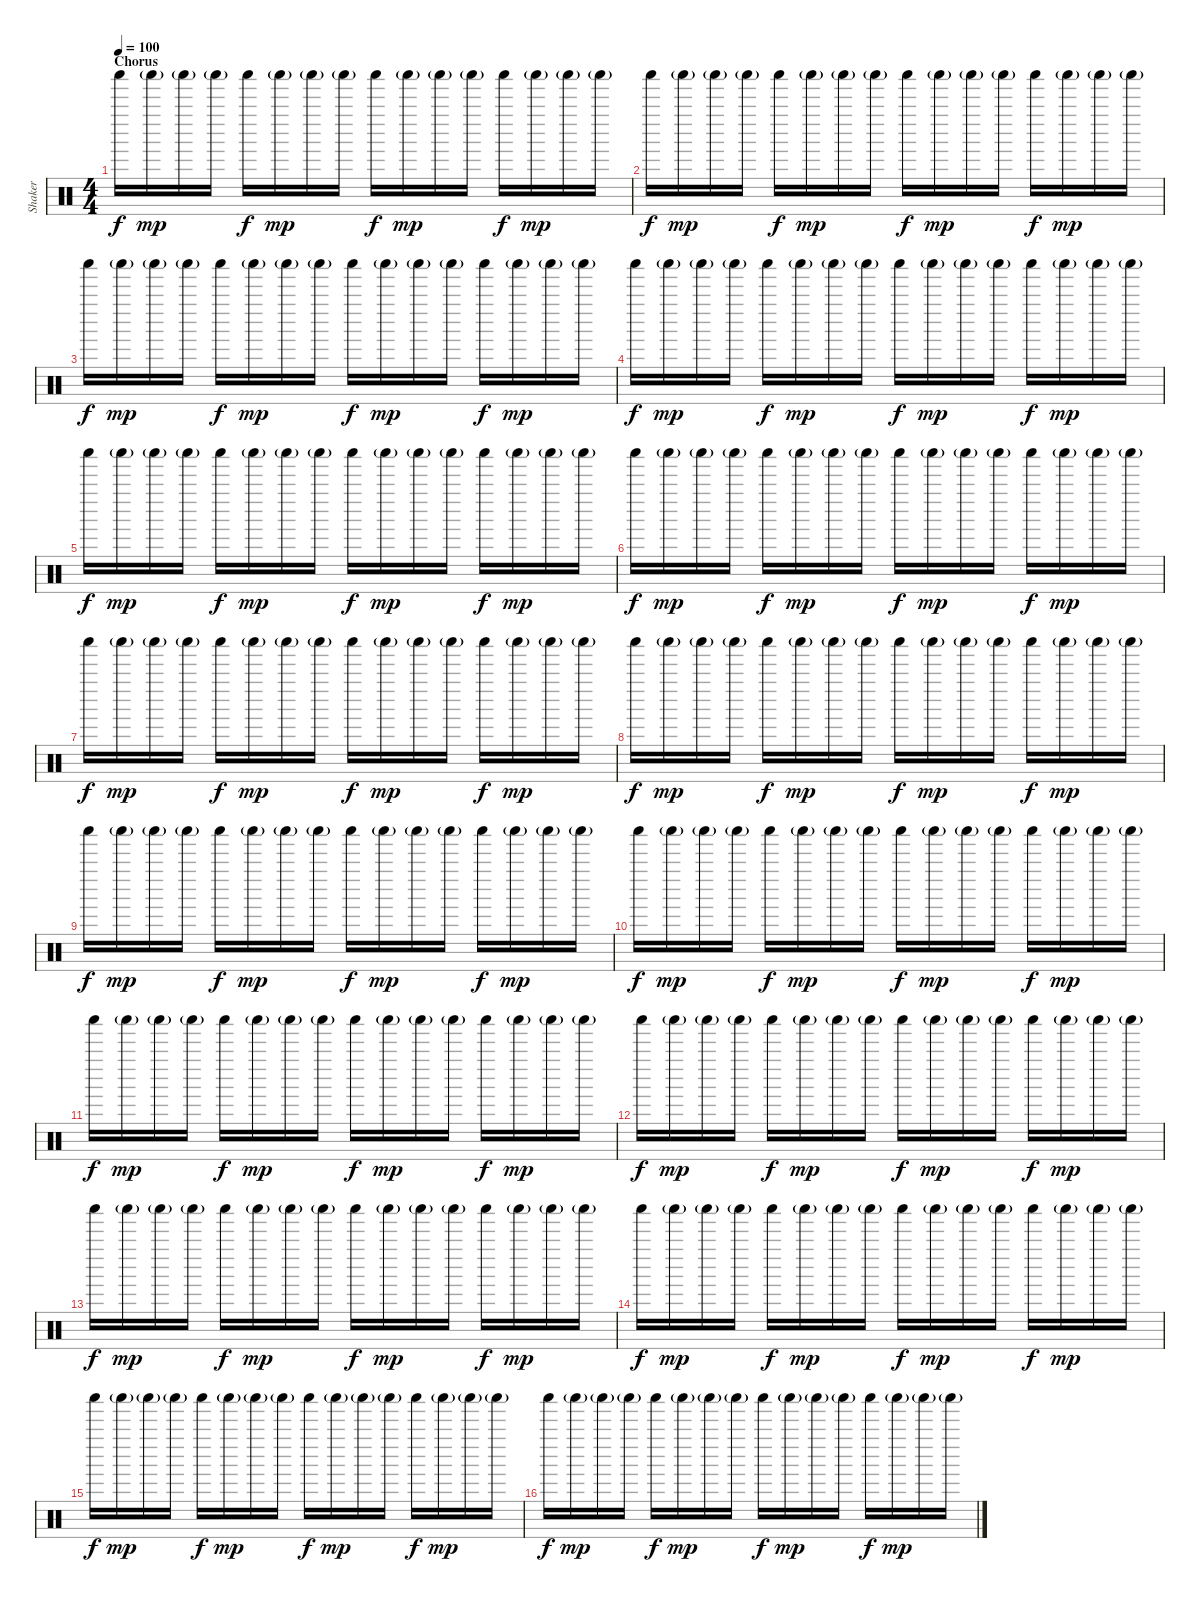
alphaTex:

\track ("Shaker" "Shaker") {instrument percussion}
\staff {score}
\articulation defaults
\ts (4 4)
\section ("" "Chorus")
\tempo 100
\clef neutral
\ks c "Shaker (hit)".16{dy f} "Shaker (hit)"{g}.16{dy mp} "Shaker (hit)"{g}.16 "Shaker (hit)"{g}.16 "Shaker (hit)".16{dy f} "Shaker (hit)"{g}.16{dy mp} "Shaker (hit)"{g}.16 "Shaker (hit)"{g}.16 "Shaker (hit)".16{dy f} "Shaker (hit)"{g}.16{dy mp} "Shaker (hit)"{g}.16 "Shaker (hit)"{g}.16 "Shaker (hit)".16{dy f} "Shaker (hit)"{g}.16{dy mp} "Shaker (hit)"{g}.16 "Shaker (hit)"{g}.16
|
"Shaker (hit)".16{dy f} "Shaker (hit)"{g}.16{dy mp} "Shaker (hit)"{g}.16 "Shaker (hit)"{g}.16 "Shaker (hit)".16{dy f} "Shaker (hit)"{g}.16{dy mp} "Shaker (hit)"{g}.16 "Shaker (hit)"{g}.16 "Shaker (hit)".16{dy f} "Shaker (hit)"{g}.16{dy mp} "Shaker (hit)"{g}.16 "Shaker (hit)"{g}.16 "Shaker (hit)".16{dy f} "Shaker (hit)"{g}.16{dy mp} "Shaker (hit)"{g}.16 "Shaker (hit)"{g}.16 |
"Shaker (hit)".16{dy f} "Shaker (hit)"{g}.16{dy mp} "Shaker (hit)"{g}.16 "Shaker (hit)"{g}.16 "Shaker (hit)".16{dy f} "Shaker (hit)"{g}.16{dy mp} "Shaker (hit)"{g}.16 "Shaker (hit)"{g}.16 "Shaker (hit)".16{dy f} "Shaker (hit)"{g}.16{dy mp} "Shaker (hit)"{g}.16 "Shaker (hit)"{g}.16 "Shaker (hit)".16{dy f} "Shaker (hit)"{g}.16{dy mp} "Shaker (hit)"{g}.16 "Shaker (hit)"{g}.16 |
"Shaker (hit)".16{dy f} "Shaker (hit)"{g}.16{dy mp} "Shaker (hit)"{g}.16 "Shaker (hit)"{g}.16 "Shaker (hit)".16{dy f} "Shaker (hit)"{g}.16{dy mp} "Shaker (hit)"{g}.16 "Shaker (hit)"{g}.16 "Shaker (hit)".16{dy f} "Shaker (hit)"{g}.16{dy mp} "Shaker (hit)"{g}.16 "Shaker (hit)"{g}.16 "Shaker (hit)".16{dy f} "Shaker (hit)"{g}.16{dy mp} "Shaker (hit)"{g}.16 "Shaker (hit)"{g}.16 |
"Shaker (hit)".16{dy f} "Shaker (hit)"{g}.16{dy mp} "Shaker (hit)"{g}.16 "Shaker (hit)"{g}.16 "Shaker (hit)".16{dy f} "Shaker (hit)"{g}.16{dy mp} "Shaker (hit)"{g}.16 "Shaker (hit)"{g}.16 "Shaker (hit)".16{dy f} "Shaker (hit)"{g}.16{dy mp} "Shaker (hit)"{g}.16 "Shaker (hit)"{g}.16 "Shaker (hit)".16{dy f} "Shaker (hit)"{g}.16{dy mp} "Shaker (hit)"{g}.16 "Shaker (hit)"{g}.16 |
"Shaker (hit)".16{dy f} "Shaker (hit)"{g}.16{dy mp} "Shaker (hit)"{g}.16 "Shaker (hit)"{g}.16 "Shaker (hit)".16{dy f} "Shaker (hit)"{g}.16{dy mp} "Shaker (hit)"{g}.16 "Shaker (hit)"{g}.16 "Shaker (hit)".16{dy f} "Shaker (hit)"{g}.16{dy mp} "Shaker (hit)"{g}.16 "Shaker (hit)"{g}.16 "Shaker (hit)".16{dy f} "Shaker (hit)"{g}.16{dy mp} "Shaker (hit)"{g}.16 "Shaker (hit)"{g}.16 |
"Shaker (hit)".16{dy f} "Shaker (hit)"{g}.16{dy mp} "Shaker (hit)"{g}.16 "Shaker (hit)"{g}.16 "Shaker (hit)".16{dy f} "Shaker (hit)"{g}.16{dy mp} "Shaker (hit)"{g}.16 "Shaker (hit)"{g}.16 "Shaker (hit)".16{dy f} "Shaker (hit)"{g}.16{dy mp} "Shaker (hit)"{g}.16 "Shaker (hit)"{g}.16 "Shaker (hit)".16{dy f} "Shaker (hit)"{g}.16{dy mp} "Shaker (hit)"{g}.16 "Shaker (hit)"{g}.16 |
"Shaker (hit)".16{dy f} "Shaker (hit)"{g}.16{dy mp} "Shaker (hit)"{g}.16 "Shaker (hit)"{g}.16 "Shaker (hit)".16{dy f} "Shaker (hit)"{g}.16{dy mp} "Shaker (hit)"{g}.16 "Shaker (hit)"{g}.16 "Shaker (hit)".16{dy f} "Shaker (hit)"{g}.16{dy mp} "Shaker (hit)"{g}.16 "Shaker (hit)"{g}.16 "Shaker (hit)".16{dy f} "Shaker (hit)"{g}.16{dy mp} "Shaker (hit)"{g}.16 "Shaker (hit)"{g}.16 |
"Shaker (hit)".16{dy f} "Shaker (hit)"{g}.16{dy mp} "Shaker (hit)"{g}.16 "Shaker (hit)"{g}.16 "Shaker (hit)".16{dy f} "Shaker (hit)"{g}.16{dy mp} "Shaker (hit)"{g}.16 "Shaker (hit)"{g}.16 "Shaker (hit)".16{dy f} "Shaker (hit)"{g}.16{dy mp} "Shaker (hit)"{g}.16 "Shaker (hit)"{g}.16 "Shaker (hit)".16{dy f} "Shaker (hit)"{g}.16{dy mp} "Shaker (hit)"{g}.16 "Shaker (hit)"{g}.16 |
"Shaker (hit)".16{dy f} "Shaker (hit)"{g}.16{dy mp} "Shaker (hit)"{g}.16 "Shaker (hit)"{g}.16 "Shaker (hit)".16{dy f} "Shaker (hit)"{g}.16{dy mp} "Shaker (hit)"{g}.16 "Shaker (hit)"{g}.16 "Shaker (hit)".16{dy f} "Shaker (hit)"{g}.16{dy mp} "Shaker (hit)"{g}.16 "Shaker (hit)"{g}.16 "Shaker (hit)".16{dy f} "Shaker (hit)"{g}.16{dy mp} "Shaker (hit)"{g}.16 "Shaker (hit)"{g}.16 |
"Shaker (hit)".16{dy f} "Shaker (hit)"{g}.16{dy mp} "Shaker (hit)"{g}.16 "Shaker (hit)"{g}.16 "Shaker (hit)".16{dy f} "Shaker (hit)"{g}.16{dy mp} "Shaker (hit)"{g}.16 "Shaker (hit)"{g}.16 "Shaker (hit)".16{dy f} "Shaker (hit)"{g}.16{dy mp} "Shaker (hit)"{g}.16 "Shaker (hit)"{g}.16 "Shaker (hit)".16{dy f} "Shaker (hit)"{g}.16{dy mp} "Shaker (hit)"{g}.16 "Shaker (hit)"{g}.16 |
"Shaker (hit)".16{dy f} "Shaker (hit)"{g}.16{dy mp} "Shaker (hit)"{g}.16 "Shaker (hit)"{g}.16 "Shaker (hit)".16{dy f} "Shaker (hit)"{g}.16{dy mp} "Shaker (hit)"{g}.16 "Shaker (hit)"{g}.16 "Shaker (hit)".16{dy f} "Shaker (hit)"{g}.16{dy mp} "Shaker (hit)"{g}.16 "Shaker (hit)"{g}.16 "Shaker (hit)".16{dy f} "Shaker (hit)"{g}.16{dy mp} "Shaker (hit)"{g}.16 "Shaker (hit)"{g}.16 |
"Shaker (hit)".16{dy f} "Shaker (hit)"{g}.16{dy mp} "Shaker (hit)"{g}.16 "Shaker (hit)"{g}.16 "Shaker (hit)".16{dy f} "Shaker (hit)"{g}.16{dy mp} "Shaker (hit)"{g}.16 "Shaker (hit)"{g}.16 "Shaker (hit)".16{dy f} "Shaker (hit)"{g}.16{dy mp} "Shaker (hit)"{g}.16 "Shaker (hit)"{g}.16 "Shaker (hit)".16{dy f} "Shaker (hit)"{g}.16{dy mp} "Shaker (hit)"{g}.16 "Shaker (hit)"{g}.16 |
"Shaker (hit)".16{dy f} "Shaker (hit)"{g}.16{dy mp} "Shaker (hit)"{g}.16 "Shaker (hit)"{g}.16 "Shaker (hit)".16{dy f} "Shaker (hit)"{g}.16{dy mp} "Shaker (hit)"{g}.16 "Shaker (hit)"{g}.16 "Shaker (hit)".16{dy f} "Shaker (hit)"{g}.16{dy mp} "Shaker (hit)"{g}.16 "Shaker (hit)"{g}.16 "Shaker (hit)".16{dy f} "Shaker (hit)"{g}.16{dy mp} "Shaker (hit)"{g}.16 "Shaker (hit)"{g}.16 |
"Shaker (hit)".16{dy f} "Shaker (hit)"{g}.16{dy mp} "Shaker (hit)"{g}.16 "Shaker (hit)"{g}.16 "Shaker (hit)".16{dy f} "Shaker (hit)"{g}.16{dy mp} "Shaker (hit)"{g}.16 "Shaker (hit)"{g}.16 "Shaker (hit)".16{dy f} "Shaker (hit)"{g}.16{dy mp} "Shaker (hit)"{g}.16 "Shaker (hit)"{g}.16 "Shaker (hit)".16{dy f} "Shaker (hit)"{g}.16{dy mp} "Shaker (hit)"{g}.16 "Shaker (hit)"{g}.16 |
"Shaker (hit)".16{dy f} "Shaker (hit)"{g}.16{dy mp} "Shaker (hit)"{g}.16 "Shaker (hit)"{g}.16 "Shaker (hit)".16{dy f} "Shaker (hit)"{g}.16{dy mp} "Shaker (hit)"{g}.16 "Shaker (hit)"{g}.16 "Shaker (hit)".16{dy f} "Shaker (hit)"{g}.16{dy mp} "Shaker (hit)"{g}.16 "Shaker (hit)"{g}.16 "Shaker (hit)".16{dy f} "Shaker (hit)"{g}.16{dy mp} "Shaker (hit)"{g}.16 "Shaker (hit)"{g}.16
